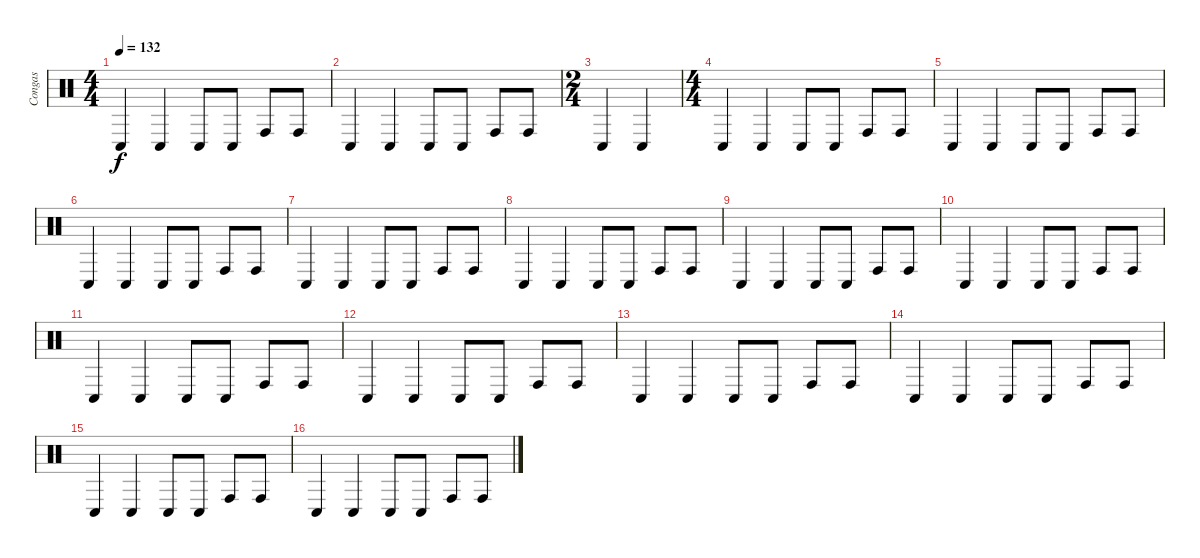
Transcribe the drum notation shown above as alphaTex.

\track ("Congas" "Congas") {instrument percussion}
\staff {score}
\articulation defaults
\ts (4 4)
\tempo 132
\clef neutral
\ks c "Conga low (hit)".4{dy f} "Conga low (hit)".4 "Conga low (hit)".8 "Conga low (hit)".8 "Conga high (hit)".8 "Conga high (hit)".8
|
"Conga low (hit)".4 "Conga low (hit)".4 "Conga low (hit)".8 "Conga low (hit)".8 "Conga high (hit)".8 "Conga high (hit)".8 |
\ts (2 4)
"Conga low (hit)".4 "Conga low (hit)".4 |
\ts (4 4)
"Conga low (hit)".4 "Conga low (hit)".4 "Conga low (hit)".8 "Conga low (hit)".8 "Conga high (hit)".8 "Conga high (hit)".8 |
"Conga low (hit)".4 "Conga low (hit)".4 "Conga low (hit)".8 "Conga low (hit)".8 "Conga high (hit)".8 "Conga high (hit)".8 |
"Conga low (hit)".4 "Conga low (hit)".4 "Conga low (hit)".8 "Conga low (hit)".8 "Conga high (hit)".8 "Conga high (hit)".8 |
"Conga low (hit)".4 "Conga low (hit)".4 "Conga low (hit)".8 "Conga low (hit)".8 "Conga high (hit)".8 "Conga high (hit)".8 |
"Conga low (hit)".4 "Conga low (hit)".4 "Conga low (hit)".8 "Conga low (hit)".8 "Conga high (hit)".8 "Conga high (hit)".8 |
"Conga low (hit)".4 "Conga low (hit)".4 "Conga low (hit)".8 "Conga low (hit)".8 "Conga high (hit)".8 "Conga high (hit)".8 |
"Conga low (hit)".4 "Conga low (hit)".4 "Conga low (hit)".8 "Conga low (hit)".8 "Conga high (hit)".8 "Conga high (hit)".8 |
"Conga low (hit)".4 "Conga low (hit)".4 "Conga low (hit)".8 "Conga low (hit)".8 "Conga high (hit)".8 "Conga high (hit)".8 |
"Conga low (hit)".4 "Conga low (hit)".4 "Conga low (hit)".8 "Conga low (hit)".8 "Conga high (hit)".8 "Conga high (hit)".8 |
"Conga low (hit)".4 "Conga low (hit)".4 "Conga low (hit)".8 "Conga low (hit)".8 "Conga high (hit)".8 "Conga high (hit)".8 |
"Conga low (hit)".4 "Conga low (hit)".4 "Conga low (hit)".8 "Conga low (hit)".8 "Conga high (hit)".8 "Conga high (hit)".8 |
"Conga low (hit)".4 "Conga low (hit)".4 "Conga low (hit)".8 "Conga low (hit)".8 "Conga high (hit)".8 "Conga high (hit)".8 |
"Conga low (hit)".4 "Conga low (hit)".4 "Conga low (hit)".8 "Conga low (hit)".8 "Conga high (hit)".8 "Conga high (hit)".8
